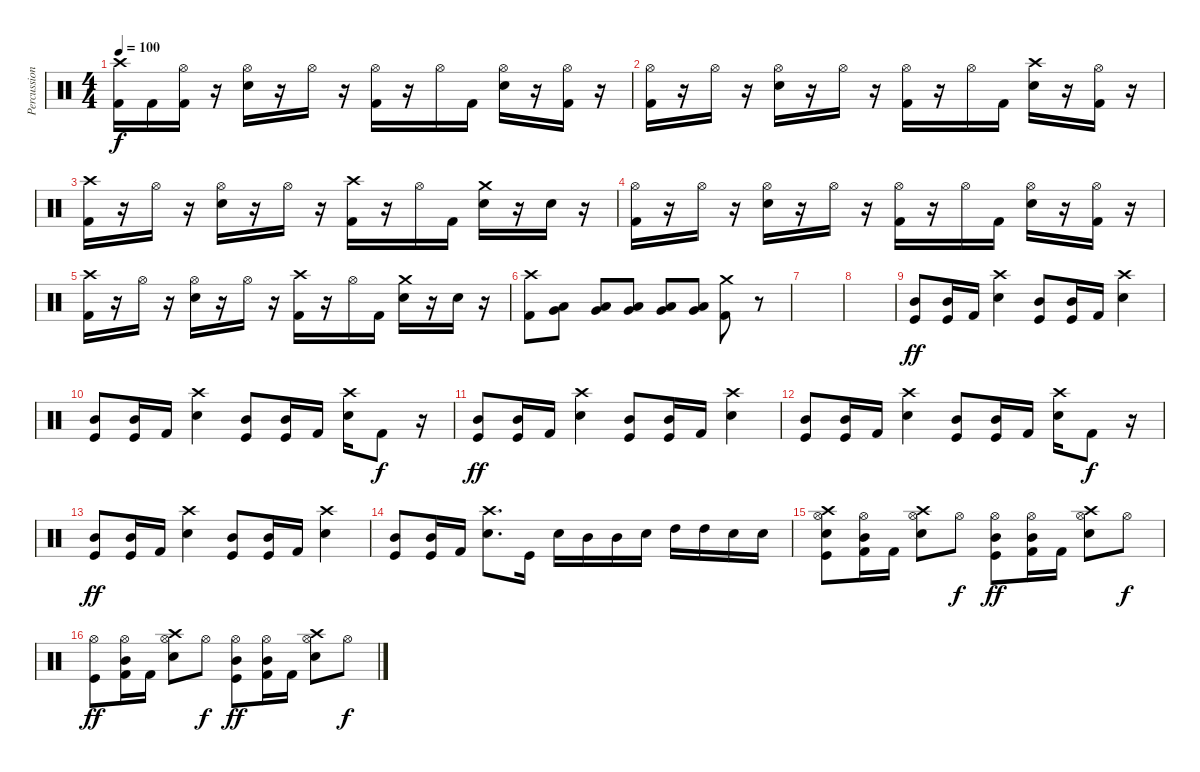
\track ("Percussion" "Percussion") {instrument percussion}
\staff {score}
\articulation defaults
\ts (4 4)
\tempo 100
\clef neutral
\ks c
("Crash high (hit)" "Kick (hit) 2").16{dy f} "Kick (hit) 2".16 ("Hi-Hat (open)" "Kick (hit) 2").16 r.16 ("Hi-Hat (open)" "Snare (hit) 2").16 r.16 "Hi-Hat (open)".16 r.16 ("Hi-Hat (open)" "Kick (hit) 2").16 r.16 "Hi-Hat (open)".16 "Kick (hit) 2".16 ("Hi-Hat (open)" "Snare (hit) 2").16 r.16 ("Hi-Hat (open)" "Kick (hit) 2").16 r.16 |
("Hi-Hat (open)" "Kick (hit) 2").16 r.16 "Hi-Hat (open)".16 r.16 ("Hi-Hat (open)" "Snare (hit) 2").16 r.16 "Hi-Hat (open)".16 r.16 ("Hi-Hat (open)" "Kick (hit) 2").16 r.16 "Hi-Hat (open)".16 "Kick (hit) 2".16 ("Crash high (hit)" "Snare (hit) 2").16 r.16 ("Hi-Hat (open)" "Kick (hit) 2").16 r.16 |
("Crash high (hit)" "Kick (hit) 2").16 r.16 "Hi-Hat (open)".16 r.16 ("Hi-Hat (open)" "Snare (hit) 2").16 r.16 "Hi-Hat (open)".16 r.16 ("Crash high (hit)" "Kick (hit) 2").16 r.16 "Hi-Hat (open)".16 "Kick (hit) 2".16 ("Crash medium (hit)" "Snare (hit) 2").16 r.16 "Snare (hit) 2".16 r.16 |
("Hi-Hat (open)" "Kick (hit) 2").16 r.16 "Hi-Hat (open)".16 r.16 ("Hi-Hat (open)" "Snare (hit) 2").16 r.16 "Hi-Hat (open)".16 r.16 ("Hi-Hat (open)" "Kick (hit) 2").16 r.16 "Hi-Hat (open)".16 "Kick (hit) 2".16 ("Hi-Hat (open)" "Snare (hit) 2").16 r.16 ("Hi-Hat (open)" "Kick (hit) 2").16 r.16 |
("Crash high (hit)" "Kick (hit) 2").16 r.16 "Hi-Hat (open)".16 r.16 ("Hi-Hat (open)" "Snare (hit) 2").16 r.16 "Hi-Hat (open)".16 r.16 ("Crash high (hit)" "Kick (hit) 2").16 r.16 "Hi-Hat (open)".16 "Kick (hit) 2".16 ("Crash medium (hit)" "Snare (hit) 2").16 r.16 "Snare (hit) 2".16 r.16 |
("Crash high (hit)" "Kick (hit) 2").8 ("Very Low Tom (hit)" "Low Floor Tom (hit)").8 ("Very Low Tom (hit)" "Low Floor Tom (hit)").8 ("Very Low Tom (hit)" "Low Floor Tom (hit)").8 ("Very Low Tom (hit)" "Low Floor Tom (hit)").8 ("Very Low Tom (hit)" "Low Floor Tom (hit)").8 ("Crash medium (hit)" "Kick (hit) 2").8 r.8 |
|
|
("Mid Tom (hit)" "Kick (hit)").8{dy ff} ("Mid Tom (hit)" "Kick (hit)").16 "Kick (hit) 2".16 ("Crash high (hit)" "Snare (hit) 2").4 ("Mid Tom (hit)" "Kick (hit)").8 ("Mid Tom (hit)" "Kick (hit)").16 "Kick (hit) 2".16 ("Crash high (hit)" "Snare (hit) 2").4 |
("Mid Tom (hit)" "Kick (hit)").8 ("Mid Tom (hit)" "Kick (hit)").16 "Kick (hit) 2".16 ("Crash high (hit)" "Snare (hit) 2").4 ("Mid Tom (hit)" "Kick (hit)").8 ("Mid Tom (hit)" "Kick (hit)").16 "Kick (hit) 2".16 ("Crash high (hit)" "Snare (hit) 2").16 "Kick (hit) 2".8{dy f} r.16 |
("Mid Tom (hit)" "Kick (hit)").8{dy ff} ("Mid Tom (hit)" "Kick (hit)").16 "Kick (hit) 2".16 ("Crash high (hit)" "Snare (hit) 2").4 ("Mid Tom (hit)" "Kick (hit)").8 ("Mid Tom (hit)" "Kick (hit)").16 "Kick (hit) 2".16 ("Crash high (hit)" "Snare (hit) 2").4 |
("Mid Tom (hit)" "Kick (hit)").8 ("Mid Tom (hit)" "Kick (hit)").16 "Kick (hit) 2".16 ("Crash high (hit)" "Snare (hit) 2").4 ("Mid Tom (hit)" "Kick (hit)").8 ("Mid Tom (hit)" "Kick (hit)").16 "Kick (hit) 2".16 ("Crash high (hit)" "Snare (hit) 2").16 "Kick (hit) 2".8{dy f} r.16 |
("Mid Tom (hit)" "Kick (hit)").8{dy ff} ("Mid Tom (hit)" "Kick (hit)").16 "Kick (hit) 2".16 ("Crash high (hit)" "Snare (hit) 2").4 ("Mid Tom (hit)" "Kick (hit)").8 ("Mid Tom (hit)" "Kick (hit)").16 "Kick (hit) 2".16 ("Crash high (hit)" "Snare (hit) 2").4 |
("Mid Tom (hit)" "Kick (hit)").8 ("Mid Tom (hit)" "Kick (hit)").16 "Kick (hit) 2".16 ("Crash high (hit)" "Snare (hit) 2").8{d} "Kick (hit)".16 "Snare (hit) 2".16 "Mid Tom (hit)".16 "Mid Tom (hit)".16 "Snare (hit) 2".16 "High Tom (hit)".16 "High Tom (hit)".16 "Snare (hit) 2".16 "Snare (hit) 2".16 |
("Hi-Hat (open)" "Crash high (hit)" "Snare (hit) 2" "Kick (hit)").8 ("Hi-Hat (open)" "Mid Tom (hit)" "Kick (hit) 2").16 "Kick (hit) 2".16 ("Hi-Hat (open)" "Crash high (hit)" "Snare (hit) 2").8 "Hi-Hat (open)".8{dy f} ("Hi-Hat (open)" "Mid Tom (hit)" "Kick (hit)").8{dy ff} ("Hi-Hat (open)" "Mid Tom (hit)" "Kick (hit) 2").16 "Kick (hit) 2".16 ("Hi-Hat (open)" "Crash high (hit)" "Snare (hit) 2").8 "Hi-Hat (open)".8{dy f} |
("Hi-Hat (open)" "Kick (hit)").8{dy ff} ("Hi-Hat (open)" "Mid Tom (hit)" "Kick (hit) 2").16 "Kick (hit) 2".16 ("Hi-Hat (open)" "Crash high (hit)" "Snare (hit) 2").8 "Hi-Hat (open)".8{dy f} ("Hi-Hat (open)" "Mid Tom (hit)" "Kick (hit)").8{dy ff} ("Hi-Hat (open)" "Mid Tom (hit)" "Kick (hit) 2").16 "Kick (hit) 2".16 ("Hi-Hat (open)" "Crash high (hit)" "Snare (hit) 2").8 "Hi-Hat (open)".8{dy f}
